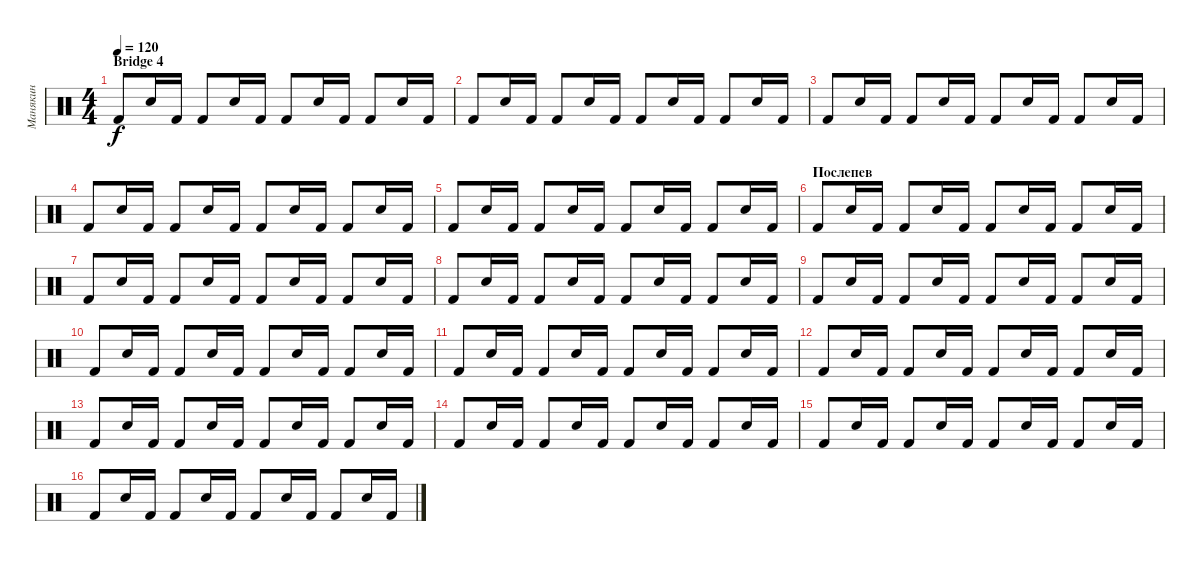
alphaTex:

\track ("Манякин" "Манякин") {instrument percussion}
\staff {score}
\articulation defaults
\ts (4 4)
\section ("" "Bridge 4")
\tempo 120
\clef neutral
\ks c "Kick (hit) 2".8{dy f} "Snare (hit) 2".16 "Kick (hit) 2".16 "Kick (hit) 2".8 "Snare (hit) 2".16 "Kick (hit) 2".16 "Kick (hit) 2".8 "Snare (hit) 2".16 "Kick (hit) 2".16 "Kick (hit) 2".8 "Snare (hit) 2".16 "Kick (hit) 2".16
|
"Kick (hit) 2".8 "Snare (hit) 2".16 "Kick (hit) 2".16 "Kick (hit) 2".8 "Snare (hit) 2".16 "Kick (hit) 2".16 "Kick (hit) 2".8 "Snare (hit) 2".16 "Kick (hit) 2".16 "Kick (hit) 2".8 "Snare (hit) 2".16 "Kick (hit) 2".16 |
"Kick (hit) 2".8 "Snare (hit) 2".16 "Kick (hit) 2".16 "Kick (hit) 2".8 "Snare (hit) 2".16 "Kick (hit) 2".16 "Kick (hit) 2".8 "Snare (hit) 2".16 "Kick (hit) 2".16 "Kick (hit) 2".8 "Snare (hit) 2".16 "Kick (hit) 2".16 |
"Kick (hit) 2".8 "Snare (hit) 2".16 "Kick (hit) 2".16 "Kick (hit) 2".8 "Snare (hit) 2".16 "Kick (hit) 2".16 "Kick (hit) 2".8 "Snare (hit) 2".16 "Kick (hit) 2".16 "Kick (hit) 2".8 "Snare (hit) 2".16 "Kick (hit) 2".16 |
"Kick (hit) 2".8 "Snare (hit) 2".16 "Kick (hit) 2".16 "Kick (hit) 2".8 "Snare (hit) 2".16 "Kick (hit) 2".16 "Kick (hit) 2".8 "Snare (hit) 2".16 "Kick (hit) 2".16 "Kick (hit) 2".8 "Snare (hit) 2".16 "Kick (hit) 2".16 |
\section ("" "Послепев")
"Kick (hit) 2".8 "Snare (hit) 2".16 "Kick (hit) 2".16 "Kick (hit) 2".8 "Snare (hit) 2".16 "Kick (hit) 2".16 "Kick (hit) 2".8 "Snare (hit) 2".16 "Kick (hit) 2".16 "Kick (hit) 2".8 "Snare (hit) 2".16 "Kick (hit) 2".16 |
"Kick (hit) 2".8 "Snare (hit) 2".16 "Kick (hit) 2".16 "Kick (hit) 2".8 "Snare (hit) 2".16 "Kick (hit) 2".16 "Kick (hit) 2".8 "Snare (hit) 2".16 "Kick (hit) 2".16 "Kick (hit) 2".8 "Snare (hit) 2".16 "Kick (hit) 2".16 |
"Kick (hit) 2".8 "Snare (hit) 2".16 "Kick (hit) 2".16 "Kick (hit) 2".8 "Snare (hit) 2".16 "Kick (hit) 2".16 "Kick (hit) 2".8 "Snare (hit) 2".16 "Kick (hit) 2".16 "Kick (hit) 2".8 "Snare (hit) 2".16 "Kick (hit) 2".16 |
"Kick (hit) 2".8 "Snare (hit) 2".16 "Kick (hit) 2".16 "Kick (hit) 2".8 "Snare (hit) 2".16 "Kick (hit) 2".16 "Kick (hit) 2".8 "Snare (hit) 2".16 "Kick (hit) 2".16 "Kick (hit) 2".8 "Snare (hit) 2".16 "Kick (hit) 2".16 |
"Kick (hit) 2".8 "Snare (hit) 2".16 "Kick (hit) 2".16 "Kick (hit) 2".8 "Snare (hit) 2".16 "Kick (hit) 2".16 "Kick (hit) 2".8 "Snare (hit) 2".16 "Kick (hit) 2".16 "Kick (hit) 2".8 "Snare (hit) 2".16 "Kick (hit) 2".16 |
"Kick (hit) 2".8 "Snare (hit) 2".16 "Kick (hit) 2".16 "Kick (hit) 2".8 "Snare (hit) 2".16 "Kick (hit) 2".16 "Kick (hit) 2".8 "Snare (hit) 2".16 "Kick (hit) 2".16 "Kick (hit) 2".8 "Snare (hit) 2".16 "Kick (hit) 2".16 |
"Kick (hit) 2".8 "Snare (hit) 2".16 "Kick (hit) 2".16 "Kick (hit) 2".8 "Snare (hit) 2".16 "Kick (hit) 2".16 "Kick (hit) 2".8 "Snare (hit) 2".16 "Kick (hit) 2".16 "Kick (hit) 2".8 "Snare (hit) 2".16 "Kick (hit) 2".16 |
"Kick (hit) 2".8 "Snare (hit) 2".16 "Kick (hit) 2".16 "Kick (hit) 2".8 "Snare (hit) 2".16 "Kick (hit) 2".16 "Kick (hit) 2".8 "Snare (hit) 2".16 "Kick (hit) 2".16 "Kick (hit) 2".8 "Snare (hit) 2".16 "Kick (hit) 2".16 |
"Kick (hit) 2".8 "Snare (hit) 2".16 "Kick (hit) 2".16 "Kick (hit) 2".8 "Snare (hit) 2".16 "Kick (hit) 2".16 "Kick (hit) 2".8 "Snare (hit) 2".16 "Kick (hit) 2".16 "Kick (hit) 2".8 "Snare (hit) 2".16 "Kick (hit) 2".16 |
"Kick (hit) 2".8 "Snare (hit) 2".16 "Kick (hit) 2".16 "Kick (hit) 2".8 "Snare (hit) 2".16 "Kick (hit) 2".16 "Kick (hit) 2".8 "Snare (hit) 2".16 "Kick (hit) 2".16 "Kick (hit) 2".8 "Snare (hit) 2".16 "Kick (hit) 2".16 |
"Kick (hit) 2".8 "Snare (hit) 2".16 "Kick (hit) 2".16 "Kick (hit) 2".8 "Snare (hit) 2".16 "Kick (hit) 2".16 "Kick (hit) 2".8 "Snare (hit) 2".16 "Kick (hit) 2".16 "Kick (hit) 2".8 "Snare (hit) 2".16 "Kick (hit) 2".16
